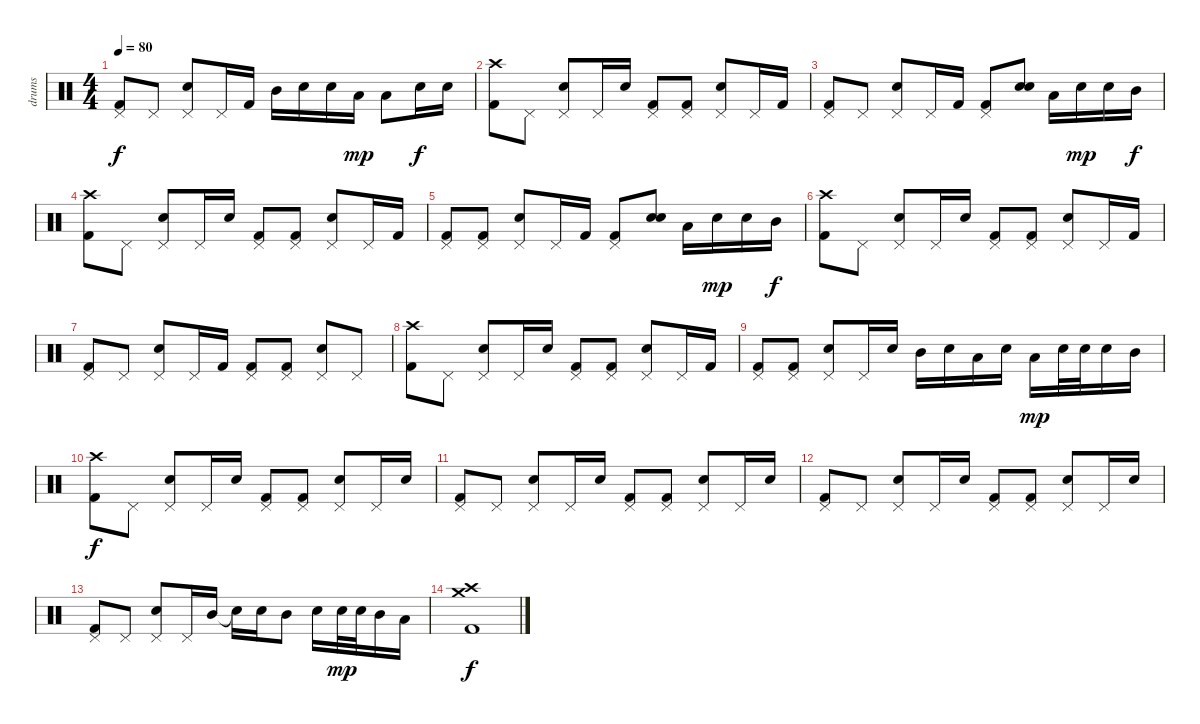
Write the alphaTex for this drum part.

\track ("drums" "drums") {instrument percussion}
\staff {score}
\articulation defaults
\ts (4 4)
\tempo 80
\clef neutral
\ks c
("Pedal Hi-Hat (hit)" "Kick (hit) 2").8{dy f} "Pedal Hi-Hat (hit)".8 ("Pedal Hi-Hat (hit)" "Electric Snare (hit)").8 "Pedal Hi-Hat (hit)".16 "Kick (hit) 2".16 "Mid Tom (hit)".16 "Electric Snare (hit)".16 "Electric Snare (hit)".16 "Low Tom (hit)".16{dy mp} "Low Tom (hit)".8 "Electric Snare (hit)".16{dy f} "Electric Snare (hit)".16 |
("Crash high (hit)" "Kick (hit) 2").8 "Pedal Hi-Hat (hit)".8 ("Pedal Hi-Hat (hit)" "Electric Snare (hit)").8 "Pedal Hi-Hat (hit)".16 "Electric Snare (hit)".16 ("Pedal Hi-Hat (hit)" "Kick (hit) 2").8 ("Pedal Hi-Hat (hit)" "Kick (hit) 2").8 ("Pedal Hi-Hat (hit)" "Electric Snare (hit)").8 "Pedal Hi-Hat (hit)".16 "Kick (hit) 2".16 |
("Pedal Hi-Hat (hit)" "Kick (hit) 2").8 "Pedal Hi-Hat (hit)".8 ("Pedal Hi-Hat (hit)" "Electric Snare (hit)").8 "Pedal Hi-Hat (hit)".16 "Kick (hit) 2".16 ("Pedal Hi-Hat (hit)" "Kick (hit) 2").8 ("Electric Snare (hit)" "Electric Snare (hit)").8 "Low Tom (hit)".16 "Electric Snare (hit)".16{dy mp} "Electric Snare (hit)".16 "Mid Tom (hit)".16{dy f} |
("Crash high (hit)" "Kick (hit) 2").8 "Pedal Hi-Hat (hit)".8 ("Pedal Hi-Hat (hit)" "Electric Snare (hit)").8 "Pedal Hi-Hat (hit)".16 "Electric Snare (hit)".16 ("Pedal Hi-Hat (hit)" "Kick (hit) 2").8 ("Pedal Hi-Hat (hit)" "Kick (hit) 2").8 ("Pedal Hi-Hat (hit)" "Electric Snare (hit)").8 "Pedal Hi-Hat (hit)".16 "Kick (hit) 2".16 |
("Pedal Hi-Hat (hit)" "Kick (hit) 2").8 ("Pedal Hi-Hat (hit)" "Kick (hit) 2").8 ("Pedal Hi-Hat (hit)" "Electric Snare (hit)").8 "Pedal Hi-Hat (hit)".16 "Kick (hit) 2".16 ("Pedal Hi-Hat (hit)" "Kick (hit) 2").8 ("Electric Snare (hit)" "Electric Snare (hit)").8 "Low Tom (hit)".16 "Electric Snare (hit)".16{dy mp} "Electric Snare (hit)".16 "Mid Tom (hit)".16{dy f} |
("Crash high (hit)" "Kick (hit) 2").8 "Pedal Hi-Hat (hit)".8 ("Pedal Hi-Hat (hit)" "Electric Snare (hit)").8 "Pedal Hi-Hat (hit)".16 "Electric Snare (hit)".16 ("Pedal Hi-Hat (hit)" "Kick (hit) 2").8 ("Pedal Hi-Hat (hit)" "Kick (hit) 2").8 ("Pedal Hi-Hat (hit)" "Electric Snare (hit)").8 "Pedal Hi-Hat (hit)".16 "Kick (hit) 2".16 |
("Pedal Hi-Hat (hit)" "Kick (hit) 2").8 "Pedal Hi-Hat (hit)".8 ("Pedal Hi-Hat (hit)" "Electric Snare (hit)").8 "Pedal Hi-Hat (hit)".16 "Kick (hit) 2".16 ("Pedal Hi-Hat (hit)" "Kick (hit) 2").8 ("Pedal Hi-Hat (hit)" "Kick (hit) 2").8 ("Pedal Hi-Hat (hit)" "Electric Snare (hit)").8 "Pedal Hi-Hat (hit)".8 |
("Crash high (hit)" "Kick (hit) 2").8 "Pedal Hi-Hat (hit)".8 ("Pedal Hi-Hat (hit)" "Electric Snare (hit)").8 "Pedal Hi-Hat (hit)".16 "Electric Snare (hit)".16 ("Pedal Hi-Hat (hit)" "Kick (hit) 2").8 ("Pedal Hi-Hat (hit)" "Kick (hit) 2").8 ("Pedal Hi-Hat (hit)" "Electric Snare (hit)").8 "Pedal Hi-Hat (hit)".16 "Kick (hit) 2".16 |
("Pedal Hi-Hat (hit)" "Kick (hit) 2").8 ("Pedal Hi-Hat (hit)" "Kick (hit) 2").8 ("Pedal Hi-Hat (hit)" "Electric Snare (hit)").8 "Pedal Hi-Hat (hit)".16 "Electric Snare (hit)".16 "Mid Tom (hit)".16 "Electric Snare (hit)".16 "Low Tom (hit)".16 "Electric Snare (hit)".16 "Low Tom (hit)".16{dy mp} "Electric Snare (hit)".32 "Electric Snare (hit)".32 "Electric Snare (hit)".16 "Mid Tom (hit)".16 |
("Crash high (hit)" "Kick (hit) 2").8{dy f} "Pedal Hi-Hat (hit)".8 ("Pedal Hi-Hat (hit)" "Electric Snare (hit)").8 "Pedal Hi-Hat (hit)".16 "Electric Snare (hit)".16 ("Pedal Hi-Hat (hit)" "Kick (hit) 2").8 ("Pedal Hi-Hat (hit)" "Kick (hit) 2").8 ("Pedal Hi-Hat (hit)" "Electric Snare (hit)").8 "Pedal Hi-Hat (hit)".16 "Electric Snare (hit)".16 |
("Pedal Hi-Hat (hit)" "Kick (hit) 2").8 "Pedal Hi-Hat (hit)".8 ("Pedal Hi-Hat (hit)" "Electric Snare (hit)").8 "Pedal Hi-Hat (hit)".16 "Electric Snare (hit)".16 ("Pedal Hi-Hat (hit)" "Kick (hit) 2").8 ("Pedal Hi-Hat (hit)" "Kick (hit) 2").8 ("Pedal Hi-Hat (hit)" "Electric Snare (hit)").8 "Pedal Hi-Hat (hit)".16 "Electric Snare (hit)".16 |
("Pedal Hi-Hat (hit)" "Kick (hit) 2").8 "Pedal Hi-Hat (hit)".8 ("Pedal Hi-Hat (hit)" "Electric Snare (hit)").8 "Pedal Hi-Hat (hit)".16 "Electric Snare (hit)".16 ("Pedal Hi-Hat (hit)" "Kick (hit) 2").8 ("Pedal Hi-Hat (hit)" "Kick (hit) 2").8 ("Pedal Hi-Hat (hit)" "Electric Snare (hit)").8 "Pedal Hi-Hat (hit)".16 "Electric Snare (hit)".16 |
("Pedal Hi-Hat (hit)" "Kick (hit) 2").8 "Pedal Hi-Hat (hit)".8 ("Pedal Hi-Hat (hit)" "Electric Snare (hit)").8 "Pedal Hi-Hat (hit)".16 "Mid Tom (hit)".16 "Snare (hit)"{t}.16 "Electric Snare (hit)".16 "Mid Tom (hit)".8 "Electric Snare (hit)".16 "Electric Snare (hit)".32{dy mp} "Electric Snare (hit)".32 "Mid Tom (hit)".16 "Low Tom (hit)".16 |
("Crash medium (hit)" "Crash high (hit)" "Kick (hit) 2").1{dy f}
